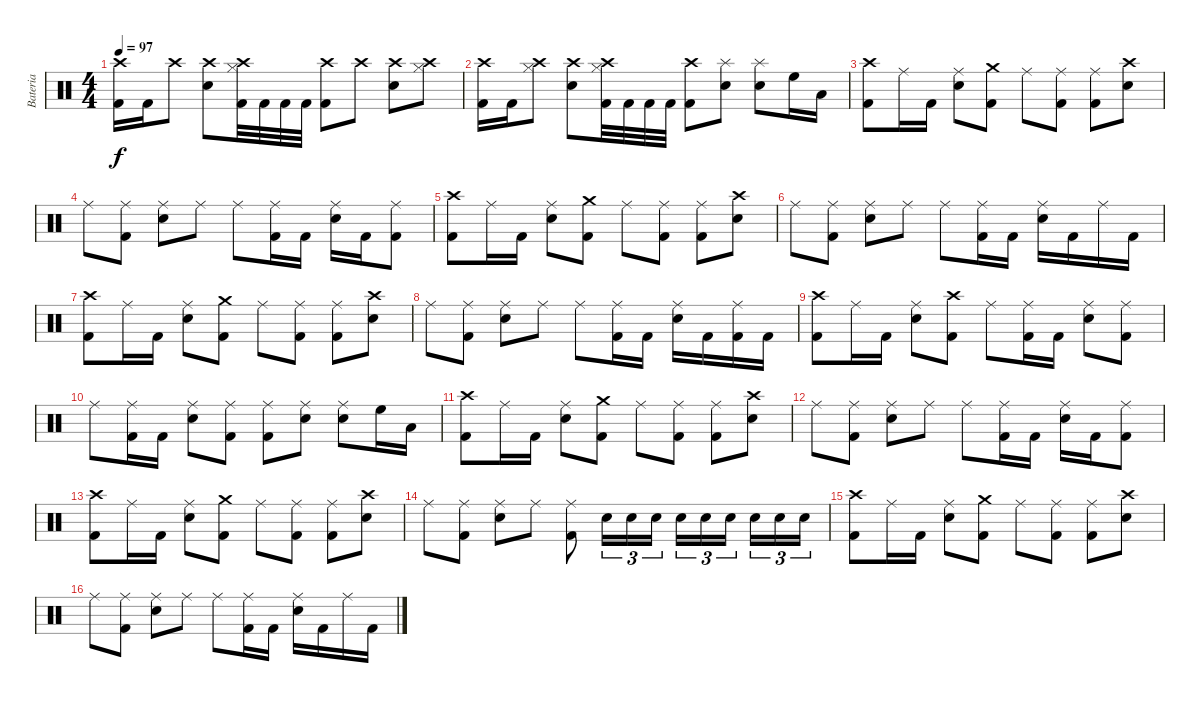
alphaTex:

\track ("Bateria" "Bateria") {instrument percussion}
\staff {score}
\articulation defaults
\ts (4 4)
\tempo 97
\clef neutral
\ks c
("Crash high (hit)" "Kick (hit) 2").16{dy f} "Kick (hit) 2".16 "Crash high (hit)".8 ("Crash high (hit)" "Electric Snare (hit)").8 ("Crash high (hit)" "Hi-Hat (closed)" "Kick (hit) 2").32 "Kick (hit) 2".32 "Kick (hit) 2".32 "Kick (hit) 2".32 ("Crash high (hit)" "Kick (hit) 2").8 "Crash high (hit)".8 ("Crash high (hit)" "Electric Snare (hit)").8 ("Crash high (hit)" "Hi-Hat (closed)").8 |
("Crash high (hit)" "Kick (hit) 2").16 "Kick (hit) 2".16 ("Crash high (hit)" "Hi-Hat (closed)").8 ("Crash high (hit)" "Electric Snare (hit)").8 ("Crash high (hit)" "Hi-Hat (closed)" "Kick (hit) 2").32 "Kick (hit) 2".32 "Kick (hit) 2".32 "Kick (hit) 2".32 ("Crash high (hit)" "Kick (hit) 2").8 ("Splash (hit)" "Electric Snare (hit)").8 ("Splash (hit)" "Electric Snare (hit)").8 "High Floor Tom (hit)".16 "Low Tom (hit)".16 |
("Crash high (hit)" "Kick (hit) 2").8 "Ride (middle)".16 "Kick (hit) 2".16 ("Ride (middle)" "Electric Snare (hit)").8 ("Crash medium (hit)" "Kick (hit) 2").8 "Ride (middle)".8 ("Ride (middle)" "Kick (hit) 2").8 ("Ride (middle)" "Kick (hit) 2").8 ("Crash high (hit)" "Electric Snare (hit)").8 |
"Ride (middle)".8 ("Ride (middle)" "Kick (hit) 2").8 ("Ride (middle)" "Electric Snare (hit)").8 "Ride (middle)".8 "Ride (middle)".8 ("Ride (middle)" "Kick (hit) 2").16 "Kick (hit) 2".16 ("Ride (middle)" "Electric Snare (hit)").16 "Kick (hit) 2".16 ("Ride (middle)" "Kick (hit) 2").8 |
("Crash high (hit)" "Kick (hit) 2").8 "Ride (middle)".16 "Kick (hit) 2".16 ("Ride (middle)" "Electric Snare (hit)").8 ("Crash medium (hit)" "Kick (hit) 2").8 "Ride (middle)".8 ("Ride (middle)" "Kick (hit) 2").8 ("Ride (middle)" "Kick (hit) 2").8 ("Crash high (hit)" "Electric Snare (hit)").8 |
"Ride (middle)".8 ("Ride (middle)" "Kick (hit) 2").8 ("Ride (middle)" "Electric Snare (hit)").8 "Ride (middle)".8 "Ride (middle)".8 ("Ride (middle)" "Kick (hit) 2").16 "Kick (hit) 2".16 ("Ride (middle)" "Electric Snare (hit)").16 "Kick (hit) 2".16 "Ride (middle)".16 "Kick (hit) 2".16 |
("Crash high (hit)" "Kick (hit) 2").8 "Ride (middle)".16 "Kick (hit) 2".16 ("Ride (middle)" "Electric Snare (hit)").8 ("Crash medium (hit)" "Kick (hit) 2").8 "Ride (middle)".8 ("Ride (middle)" "Kick (hit) 2").8 ("Ride (middle)" "Kick (hit) 2").8 ("Crash high (hit)" "Electric Snare (hit)").8 |
"Ride (middle)".8 ("Ride (middle)" "Kick (hit) 2").8 ("Ride (middle)" "Electric Snare (hit)").8 "Ride (middle)".8 "Ride (middle)".8 ("Ride (middle)" "Kick (hit) 2").16 "Kick (hit) 2".16 ("Ride (middle)" "Electric Snare (hit)").16 "Kick (hit) 2".16 ("Ride (middle)" "Kick (hit) 2").16 "Kick (hit) 2".16 |
("Crash high (hit)" "Kick (hit) 2").8 "Ride (middle)".16 "Kick (hit) 2".16 ("Ride (middle)" "Electric Snare (hit)").8 ("Crash high (hit)" "Kick (hit) 2").8 "Ride (middle)".8 ("Ride (middle)" "Kick (hit) 2").16 "Kick (hit) 2".16 ("Ride (middle)" "Electric Snare (hit)").8 ("Ride (middle)" "Kick (hit) 2").8 |
"Ride (middle)".8 ("Ride (middle)" "Kick (hit) 2").16 "Kick (hit) 2".16 ("Ride (middle)" "Electric Snare (hit)").8 ("Ride (middle)" "Kick (hit) 2").8 ("Ride (middle)" "Kick (hit) 2").8 ("Ride (middle)" "Electric Snare (hit)").8 ("Ride (middle)" "Electric Snare (hit)").8 "High Floor Tom (hit)".16 "Low Tom (hit)".16 |
("Crash high (hit)" "Kick (hit) 2").8 "Ride (middle)".16 "Kick (hit) 2".16 ("Ride (middle)" "Electric Snare (hit)").8 ("Crash medium (hit)" "Kick (hit) 2").8 "Ride (middle)".8 ("Ride (middle)" "Kick (hit) 2").8 ("Ride (middle)" "Kick (hit) 2").8 ("Crash high (hit)" "Electric Snare (hit)").8 |
"Ride (middle)".8 ("Ride (middle)" "Kick (hit) 2").8 ("Ride (middle)" "Electric Snare (hit)").8 "Ride (middle)".8 "Ride (middle)".8 ("Ride (middle)" "Kick (hit) 2").16 "Kick (hit) 2".16 ("Ride (middle)" "Electric Snare (hit)").16 "Kick (hit) 2".16 ("Ride (middle)" "Kick (hit) 2").8 |
("Crash high (hit)" "Kick (hit) 2").8 "Ride (middle)".16 "Kick (hit) 2".16 ("Ride (middle)" "Electric Snare (hit)").8 ("Crash medium (hit)" "Kick (hit) 2").8 "Ride (middle)".8 ("Ride (middle)" "Kick (hit) 2").8 ("Ride (middle)" "Kick (hit) 2").8 ("Crash high (hit)" "Electric Snare (hit)").8 |
"Ride (middle)".8 ("Ride (middle)" "Kick (hit) 2").8 ("Ride (middle)" "Electric Snare (hit)").8 "Ride (middle)".8 ("Ride (middle)" "Kick (hit) 2").8 "Electric Snare (hit)".16{tu (3 2)} "Electric Snare (hit)".16{tu (3 2)} "Electric Snare (hit)".16{tu (3 2)} "Electric Snare (hit)".16{tu (3 2)} "Electric Snare (hit)".16{tu (3 2)} "Electric Snare (hit)".16{tu (3 2) beam splitsecondary} "Electric Snare (hit)".16{tu (3 2)} "Electric Snare (hit)".16{tu (3 2)} "Electric Snare (hit)".16{tu (3 2)} |
("Crash high (hit)" "Kick (hit) 2").8 "Ride (middle)".16 "Kick (hit) 2".16 ("Ride (middle)" "Electric Snare (hit)").8 ("Crash medium (hit)" "Kick (hit) 2").8 "Ride (middle)".8 ("Ride (middle)" "Kick (hit) 2").8 ("Ride (middle)" "Kick (hit) 2").8 ("Crash high (hit)" "Electric Snare (hit)").8 |
"Ride (middle)".8 ("Ride (middle)" "Kick (hit) 2").8 ("Ride (middle)" "Electric Snare (hit)").8 "Ride (middle)".8 "Ride (middle)".8 ("Ride (middle)" "Kick (hit) 2").16 "Kick (hit) 2".16 ("Ride (middle)" "Electric Snare (hit)").16 "Kick (hit) 2".16 "Ride (middle)".16 "Kick (hit) 2".16
